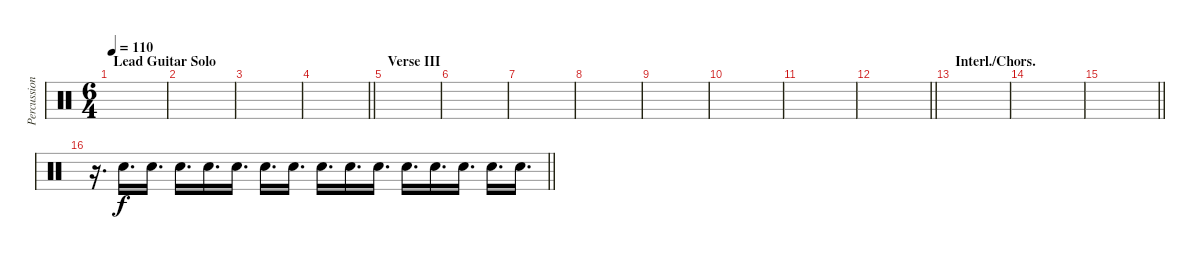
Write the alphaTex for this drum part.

\track ("Percussion" "Percussion") {instrument percussion}
\staff {score}
\articulation defaults
\ts (6 4)
\section ("" "Lead Guitar Solo")
\tempo 110
\clef neutral
\ks c
|
|
|
\barLineRight lightlight
|
\section ("" "Verse III")
|
|
|
|
|
|
|
\barLineRight lightlight
|
\section ("" "Interl./Chors.")
|
|
\barLineRight lightlight
|
\section ("" "")
\barLineRight lightlight
r.16{d volume 10} "Electric Snare (hit)".16{d} "Electric Snare (hit)".16{d} "Electric Snare (hit)".16{d} "Electric Snare (hit)".16{d} "Electric Snare (hit)".16{d} "Electric Snare (hit)".16{d} "Electric Snare (hit)".16{d} "Electric Snare (hit)".16{d} "Electric Snare (hit)".16{d} "Electric Snare (hit)".16{d} "Electric Snare (hit)".16{d} "Electric Snare (hit)".16{d} "Electric Snare (hit)".16{d} "Electric Snare (hit)".16{d} "Electric Snare (hit)".16{d}
